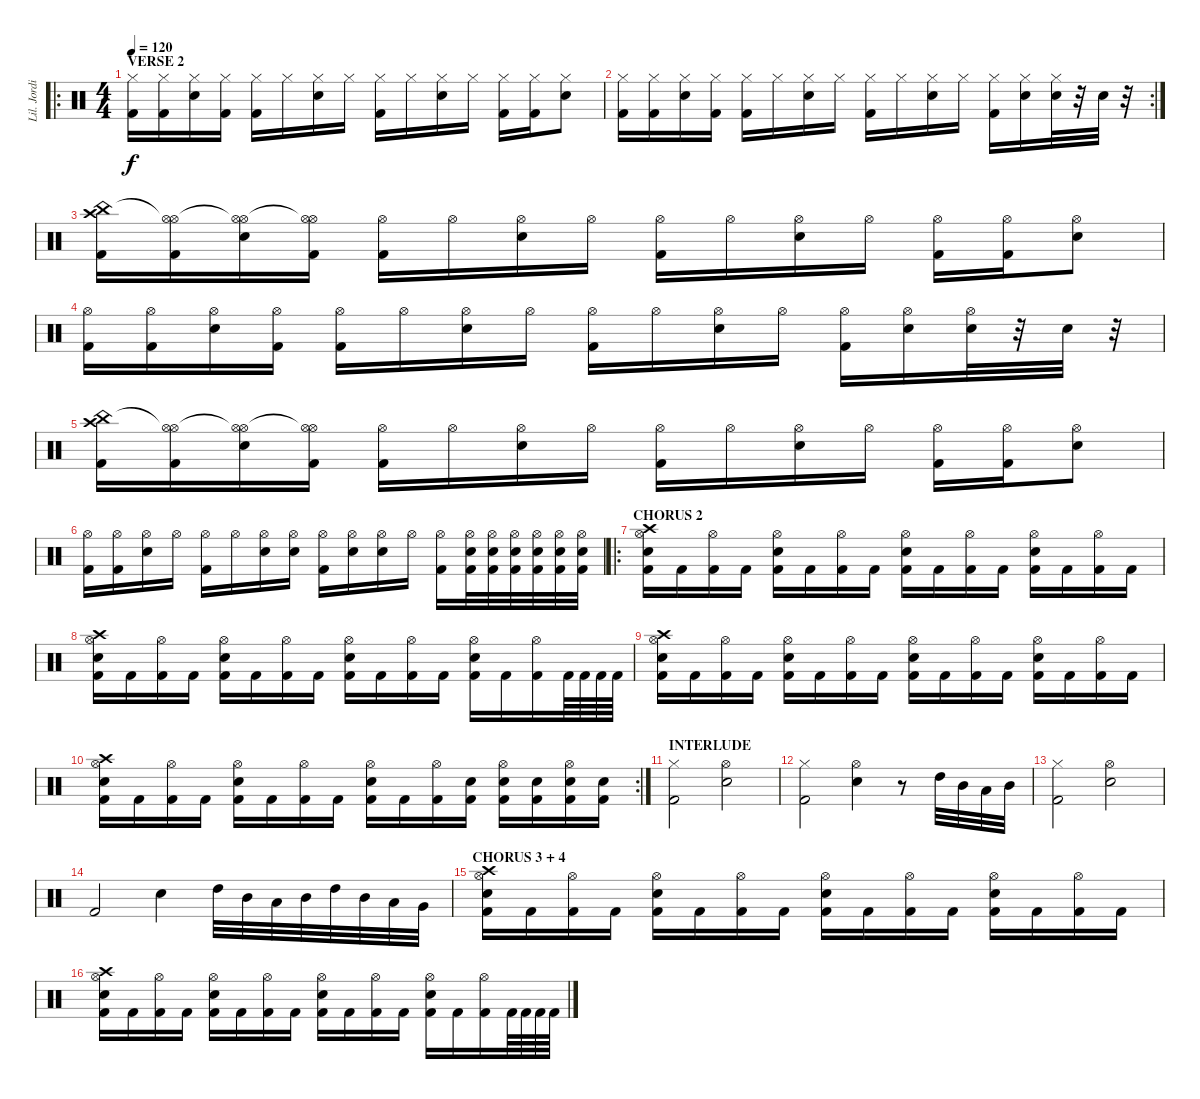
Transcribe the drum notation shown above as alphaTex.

\track ("Lil. Jordison" "Lil. Jordi") {instrument percussion}
\staff {score}
\articulation defaults
\ro
\ts (4 4)
\section ("" "VERSE 2")
\tempo 120
\clef neutral
\ks c
("Hi-Hat (closed)" "Kick (hit) 2").16{dy f} ("Hi-Hat (closed)" "Kick (hit) 2").16 ("Hi-Hat (closed)" "Electric Snare (hit)").16 ("Hi-Hat (closed)" "Kick (hit) 2").16 ("Hi-Hat (closed)" "Kick (hit) 2").16 "Hi-Hat (closed)".16 ("Hi-Hat (closed)" "Electric Snare (hit)").16 "Hi-Hat (closed)".16 ("Hi-Hat (closed)" "Kick (hit) 2").16 "Hi-Hat (closed)".16 ("Hi-Hat (closed)" "Electric Snare (hit)").16 "Hi-Hat (closed)".16 ("Hi-Hat (closed)" "Kick (hit) 2").16 ("Hi-Hat (closed)" "Kick (hit) 2").16 ("Hi-Hat (closed)" "Electric Snare (hit)").8 |
\rc 2
("Hi-Hat (closed)" "Kick (hit) 2").16 ("Hi-Hat (closed)" "Kick (hit) 2").16 ("Hi-Hat (closed)" "Electric Snare (hit)").16 ("Hi-Hat (closed)" "Kick (hit) 2").16 ("Hi-Hat (closed)" "Kick (hit) 2").16 "Hi-Hat (closed)".16 ("Hi-Hat (closed)" "Electric Snare (hit)").16 "Hi-Hat (closed)".16 ("Hi-Hat (closed)" "Kick (hit) 2").16 "Hi-Hat (closed)".16 ("Hi-Hat (closed)" "Electric Snare (hit)").16 "Hi-Hat (closed)".16 ("Hi-Hat (closed)" "Kick (hit) 2").16 ("Hi-Hat (closed)" "Electric Snare (hit)").16 ("Hi-Hat (closed)" "Electric Snare (hit)").32 r.32 "Electric Snare (hit)".32 r.32 |
("China (hit)" "Crash high (hit)" "Kick (hit) 2").16 ("Hi-Hat (open)"{t} "Hi-Hat (open)" "Kick (hit) 2").16 ("Hi-Hat (open)"{t} "Hi-Hat (open)" "Electric Snare (hit)").16 ("Hi-Hat (open)"{t} "Hi-Hat (open)" "Kick (hit) 2").16 ("Hi-Hat (open)" "Kick (hit) 2").16 "Hi-Hat (open)".16 ("Hi-Hat (open)" "Electric Snare (hit)").16 "Hi-Hat (open)".16 ("Hi-Hat (open)" "Kick (hit) 2").16 "Hi-Hat (open)".16 ("Hi-Hat (open)" "Electric Snare (hit)").16 "Hi-Hat (open)".16 ("Hi-Hat (open)" "Kick (hit) 2").16 ("Hi-Hat (open)" "Kick (hit) 2").16 ("Hi-Hat (open)" "Electric Snare (hit)").8 |
("Hi-Hat (open)" "Kick (hit) 2").16 ("Hi-Hat (open)" "Kick (hit) 2").16 ("Hi-Hat (open)" "Electric Snare (hit)").16 ("Hi-Hat (open)" "Kick (hit) 2").16 ("Hi-Hat (open)" "Kick (hit) 2").16 "Hi-Hat (open)".16 ("Hi-Hat (open)" "Electric Snare (hit)").16 "Hi-Hat (open)".16 ("Hi-Hat (open)" "Kick (hit) 2").16 "Hi-Hat (open)".16 ("Hi-Hat (open)" "Electric Snare (hit)").16 "Hi-Hat (open)".16 ("Hi-Hat (open)" "Kick (hit) 2").16 ("Hi-Hat (open)" "Electric Snare (hit)").16 ("Hi-Hat (open)" "Electric Snare (hit)").32 r.32 "Electric Snare (hit)".32 r.32 |
("China (hit)" "Crash high (hit)" "Kick (hit) 2").16 ("Hi-Hat (open)"{t} "Hi-Hat (open)" "Kick (hit) 2").16 ("Hi-Hat (open)"{t} "Hi-Hat (open)" "Electric Snare (hit)").16 ("Hi-Hat (open)"{t} "Hi-Hat (open)" "Kick (hit) 2").16 ("Hi-Hat (open)" "Kick (hit) 2").16 "Hi-Hat (open)".16 ("Hi-Hat (open)" "Electric Snare (hit)").16 "Hi-Hat (open)".16 ("Hi-Hat (open)" "Kick (hit) 2").16 "Hi-Hat (open)".16 ("Hi-Hat (open)" "Electric Snare (hit)").16 "Hi-Hat (open)".16 ("Hi-Hat (open)" "Kick (hit) 2").16 ("Hi-Hat (open)" "Kick (hit) 2").16 ("Hi-Hat (open)" "Electric Snare (hit)").8 |
("Hi-Hat (open)" "Kick (hit) 2").16 ("Hi-Hat (open)" "Kick (hit) 2").16 ("Hi-Hat (open)" "Electric Snare (hit)").16 "Hi-Hat (open)".16 ("Hi-Hat (open)" "Kick (hit) 2").16 "Hi-Hat (open)".16 ("Hi-Hat (open)" "Electric Snare (hit)").16 ("Hi-Hat (open)" "Electric Snare (hit)").16 ("Hi-Hat (open)" "Kick (hit) 2").16 ("Hi-Hat (open)" "Electric Snare (hit)").16 ("Hi-Hat (open)" "Electric Snare (hit)").16 "Hi-Hat (open)".16 ("Hi-Hat (open)" "Kick (hit) 2").16 ("Hi-Hat (open)" "Kick (hit) 2" "Electric Snare (hit)").32 ("Hi-Hat (open)" "Kick (hit) 2" "Electric Snare (hit)").32 ("Hi-Hat (open)" "Kick (hit) 2" "Electric Snare (hit)").32 ("Hi-Hat (open)" "Kick (hit) 2" "Electric Snare (hit)").32 ("Hi-Hat (open)" "Kick (hit) 2" "Electric Snare (hit)").32 ("Hi-Hat (open)" "Kick (hit) 2" "Electric Snare (hit)").32 |
\ro
\section ("" "CHORUS 2")
("Hi-Hat (open)" "Crash high (hit)" "Electric Snare (hit)" "Kick (hit) 2").16 "Kick (hit) 2".16 ("Hi-Hat (open)" "Kick (hit) 2").16 "Kick (hit) 2".16 ("Hi-Hat (open)" "Electric Snare (hit)" "Kick (hit) 2").16 "Kick (hit) 2".16 ("Hi-Hat (open)" "Kick (hit) 2").16 "Kick (hit) 2".16 ("Hi-Hat (open)" "Electric Snare (hit)" "Kick (hit) 2").16 "Kick (hit) 2".16 ("Hi-Hat (open)" "Kick (hit) 2").16 "Kick (hit) 2".16 ("Hi-Hat (open)" "Electric Snare (hit)" "Kick (hit) 2").16 "Kick (hit) 2".16 ("Hi-Hat (open)" "Kick (hit) 2").16 "Kick (hit) 2".16 |
("Hi-Hat (open)" "Crash high (hit)" "Electric Snare (hit)" "Kick (hit) 2").16 "Kick (hit) 2".16 ("Hi-Hat (open)" "Kick (hit) 2").16 "Kick (hit) 2".16 ("Hi-Hat (open)" "Electric Snare (hit)" "Kick (hit) 2").16 "Kick (hit) 2".16 ("Hi-Hat (open)" "Kick (hit) 2").16 "Kick (hit) 2".16 ("Hi-Hat (open)" "Electric Snare (hit)" "Kick (hit) 2").16 "Kick (hit) 2".16 ("Hi-Hat (open)" "Kick (hit) 2").16 "Kick (hit) 2".16 ("Hi-Hat (open)" "Electric Snare (hit)" "Kick (hit) 2").16 "Kick (hit) 2".16 ("Hi-Hat (open)" "Kick (hit) 2").16 "Kick (hit) 2".64 "Kick (hit) 2".64 "Kick (hit) 2".64 "Kick (hit) 2".64 |
("Hi-Hat (open)" "Crash high (hit)" "Electric Snare (hit)" "Kick (hit) 2").16 "Kick (hit) 2".16 ("Hi-Hat (open)" "Kick (hit) 2").16 "Kick (hit) 2".16 ("Hi-Hat (open)" "Electric Snare (hit)" "Kick (hit) 2").16 "Kick (hit) 2".16 ("Hi-Hat (open)" "Kick (hit) 2").16 "Kick (hit) 2".16 ("Hi-Hat (open)" "Electric Snare (hit)" "Kick (hit) 2").16 "Kick (hit) 2".16 ("Hi-Hat (open)" "Kick (hit) 2").16 "Kick (hit) 2".16 ("Hi-Hat (open)" "Electric Snare (hit)" "Kick (hit) 2").16 "Kick (hit) 2".16 ("Hi-Hat (open)" "Kick (hit) 2").16 "Kick (hit) 2".16 |
\rc 2
("Hi-Hat (open)" "Crash high (hit)" "Electric Snare (hit)" "Kick (hit) 2").16 "Kick (hit) 2".16 ("Hi-Hat (open)" "Kick (hit) 2").16 "Kick (hit) 2".16 ("Hi-Hat (open)" "Electric Snare (hit)" "Kick (hit) 2").16 "Kick (hit) 2".16 ("Hi-Hat (open)" "Kick (hit) 2").16 "Kick (hit) 2".16 ("Hi-Hat (open)" "Electric Snare (hit)" "Kick (hit) 2").16 "Kick (hit) 2".16 ("Hi-Hat (open)" "Kick (hit) 2").16 ("Electric Snare (hit)" "Kick (hit) 2").16 ("Hi-Hat (open)" "Electric Snare (hit)" "Kick (hit) 2").16 ("Electric Snare (hit)" "Kick (hit) 2").16 ("Hi-Hat (open)" "Electric Snare (hit)" "Kick (hit) 2").16 ("Electric Snare (hit)" "Kick (hit) 2").16 |
\section ("" "INTERLUDE")
("Hi-Hat (closed)" "Kick (hit) 2").2 ("Hi-Hat (open)" "Electric Snare (hit)").2 |
("Hi-Hat (closed)" "Kick (hit) 2").2 ("Hi-Hat (open)" "Electric Snare (hit)").4 r.8 "High Tom (hit)".32 "Mid Tom (hit)".32 "Low Tom (hit)".32 "Mid Tom (hit)".32 |
("Hi-Hat (closed)" "Kick (hit) 2").2 ("Hi-Hat (open)" "Electric Snare (hit)").2 |
"Kick (hit) 2".2 "Electric Snare (hit)".4 "High Tom (hit)".32 "Mid Tom (hit)".32 "Low Tom (hit)".32 "Mid Tom (hit)".32 "High Tom (hit)".32 "Mid Tom (hit)".32 "Low Tom (hit)".32 "Very Low Tom (hit)".32 |
\section ("" "CHORUS 3 + 4")
("Hi-Hat (open)" "Crash high (hit)" "Electric Snare (hit)" "Kick (hit) 2").16 "Kick (hit) 2".16 ("Hi-Hat (open)" "Kick (hit) 2").16 "Kick (hit) 2".16 ("Hi-Hat (open)" "Electric Snare (hit)" "Kick (hit) 2").16 "Kick (hit) 2".16 ("Hi-Hat (open)" "Kick (hit) 2").16 "Kick (hit) 2".16 ("Hi-Hat (open)" "Electric Snare (hit)" "Kick (hit) 2").16 "Kick (hit) 2".16 ("Hi-Hat (open)" "Kick (hit) 2").16 "Kick (hit) 2".16 ("Hi-Hat (open)" "Electric Snare (hit)" "Kick (hit) 2").16 "Kick (hit) 2".16 ("Hi-Hat (open)" "Kick (hit) 2").16 "Kick (hit) 2".16 |
("Hi-Hat (open)" "Crash high (hit)" "Electric Snare (hit)" "Kick (hit) 2").16 "Kick (hit) 2".16 ("Hi-Hat (open)" "Kick (hit) 2").16 "Kick (hit) 2".16 ("Hi-Hat (open)" "Electric Snare (hit)" "Kick (hit) 2").16 "Kick (hit) 2".16 ("Hi-Hat (open)" "Kick (hit) 2").16 "Kick (hit) 2".16 ("Hi-Hat (open)" "Electric Snare (hit)" "Kick (hit) 2").16 "Kick (hit) 2".16 ("Hi-Hat (open)" "Kick (hit) 2").16 "Kick (hit) 2".16 ("Hi-Hat (open)" "Electric Snare (hit)" "Kick (hit) 2").16 "Kick (hit) 2".16 ("Hi-Hat (open)" "Kick (hit) 2").16 "Kick (hit) 2".64 "Kick (hit) 2".64 "Kick (hit) 2".64 "Kick (hit) 2".64
